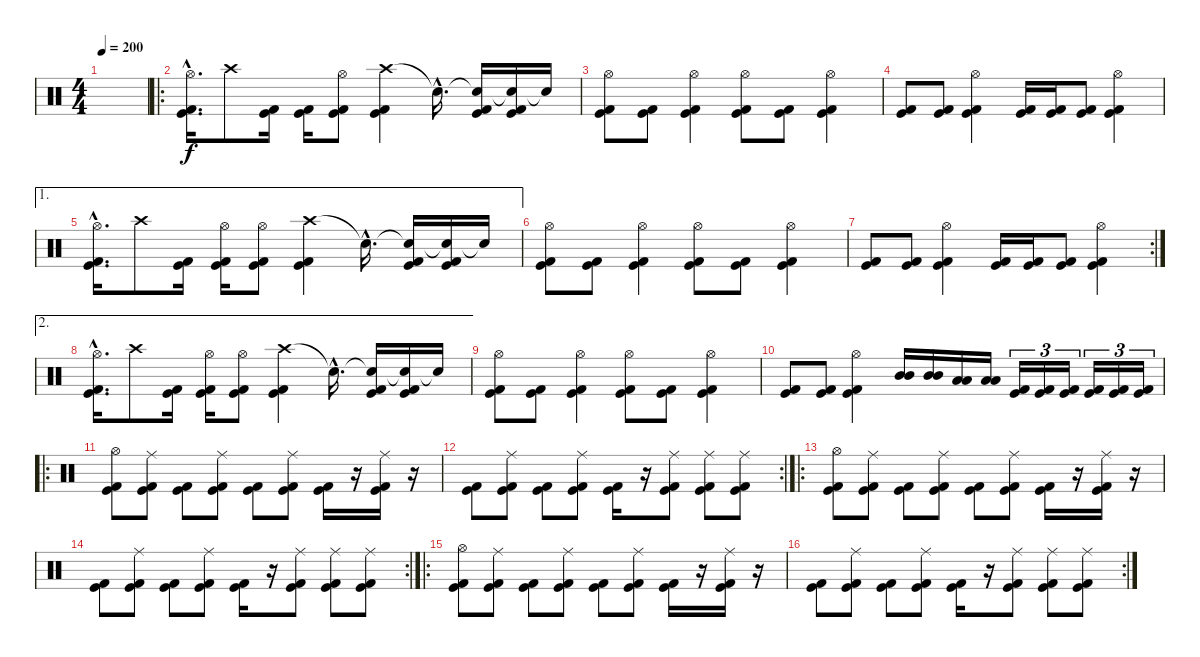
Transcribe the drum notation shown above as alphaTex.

\track "" {instrument percussion}
\staff {score}
\articulation defaults
\ts (4 4)
\tempo 200
\clef neutral
\ks c
|
\ro
("Hi-Hat (open)"{hac} "Kick (hit)"{hac} "Kick (hit) 2"{hac}).16{d} "Crash high (hit)".8 ("Kick (hit)" "Kick (hit) 2").16 ("Kick (hit)" "Kick (hit) 2").16 ("Hi-Hat (open)" "Kick (hit)" "Kick (hit) 2").8 ("Crash high (hit)" "Kick (hit)" "Kick (hit) 2").4 "Snare (hit)"{hac t}.16{d} ("Snare (hit)"{t} "Kick (hit)" "Kick (hit) 2").16 ("Snare (hit)"{t} "Kick (hit)" "Kick (hit) 2").16 "Snare (hit)"{t}.16 |
("Hi-Hat (open)" "Kick (hit)" "Kick (hit) 2").8 ("Kick (hit)" "Kick (hit) 2").8 ("Hi-Hat (open)" "Kick (hit)" "Kick (hit) 2").4 ("Hi-Hat (open)" "Kick (hit)" "Kick (hit) 2").8 ("Kick (hit)" "Kick (hit) 2").8 ("Hi-Hat (open)" "Kick (hit)" "Kick (hit) 2").4 |
("Kick (hit)" "Kick (hit) 2").8 ("Kick (hit)" "Kick (hit) 2").8 ("Hi-Hat (open)" "Kick (hit)" "Kick (hit) 2").4 ("Kick (hit)" "Kick (hit) 2").16 ("Kick (hit)" "Kick (hit) 2").16 ("Kick (hit)" "Kick (hit) 2").8 ("Hi-Hat (open)" "Kick (hit)" "Kick (hit) 2").4 |
\ae 1
("Hi-Hat (open)"{hac} "Kick (hit)"{hac} "Kick (hit) 2"{hac}).16{d} "Crash high (hit)".8 ("Kick (hit)" "Kick (hit) 2").16 ("Hi-Hat (open)" "Kick (hit)" "Kick (hit) 2").16 ("Hi-Hat (open)" "Kick (hit)" "Kick (hit) 2").8 ("Crash high (hit)" "Kick (hit)" "Kick (hit) 2").4 "Snare (hit)"{hac t}.16{d} ("Snare (hit)"{t} "Kick (hit)" "Kick (hit) 2").16 ("Snare (hit)"{t} "Kick (hit)" "Kick (hit) 2").16 "Snare (hit)"{t}.16 |
("Hi-Hat (open)" "Kick (hit)" "Kick (hit) 2").8 ("Kick (hit)" "Kick (hit) 2").8 ("Hi-Hat (open)" "Kick (hit)" "Kick (hit) 2").4 ("Hi-Hat (open)" "Kick (hit)" "Kick (hit) 2").8 ("Kick (hit)" "Kick (hit) 2").8 ("Hi-Hat (open)" "Kick (hit)" "Kick (hit) 2").4 |
\rc 2
("Kick (hit)" "Kick (hit) 2").8 ("Kick (hit)" "Kick (hit) 2").8 ("Hi-Hat (open)" "Kick (hit)" "Kick (hit) 2").4 ("Kick (hit)" "Kick (hit) 2").16 ("Kick (hit)" "Kick (hit) 2").16 ("Kick (hit)" "Kick (hit) 2").8 ("Hi-Hat (open)" "Kick (hit)" "Kick (hit) 2").4 |
\ae 2
("Hi-Hat (open)"{hac} "Kick (hit)"{hac} "Kick (hit) 2"{hac}).16{d} "Crash high (hit)".8 ("Kick (hit)" "Kick (hit) 2").16 ("Hi-Hat (open)" "Kick (hit)" "Kick (hit) 2").16 ("Hi-Hat (open)" "Kick (hit)" "Kick (hit) 2").8 ("Crash high (hit)" "Kick (hit)" "Kick (hit) 2").4 "Snare (hit)"{hac t}.16{d} ("Snare (hit)"{t} "Kick (hit)" "Kick (hit) 2").16 ("Snare (hit)"{t} "Kick (hit)" "Kick (hit) 2").16 "Snare (hit)"{t}.16 |
("Hi-Hat (open)" "Kick (hit)" "Kick (hit) 2").8 ("Kick (hit)" "Kick (hit) 2").8 ("Hi-Hat (open)" "Kick (hit)" "Kick (hit) 2").4 ("Hi-Hat (open)" "Kick (hit)" "Kick (hit) 2").8 ("Kick (hit)" "Kick (hit) 2").8 ("Hi-Hat (open)" "Kick (hit)" "Kick (hit) 2").4 |
("Kick (hit)" "Kick (hit) 2").8 ("Kick (hit)" "Kick (hit) 2").8 ("Hi-Hat (open)" "Kick (hit)" "Kick (hit) 2").4 ("Mid Tom (hit)" "Mid Tom (hit)").16 ("Mid Tom (hit)" "Mid Tom (hit)").16 ("Low Tom (hit)" "Low Tom (hit)").16 ("Low Tom (hit)" "Low Tom (hit)").16 ("Kick (hit)" "Kick (hit) 2").16{tu (3 2)} ("Kick (hit)" "Kick (hit) 2").16{tu (3 2)} ("Kick (hit)" "Kick (hit) 2").16{tu (3 2)} ("Kick (hit)" "Kick (hit) 2").16{tu (3 2)} ("Kick (hit)" "Kick (hit) 2").16{tu (3 2)} ("Kick (hit)" "Kick (hit) 2").16{tu (3 2)} |
\ro
("Hi-Hat (open)" "Kick (hit)" "Kick (hit) 2").8 ("Ride (middle)" "Kick (hit)" "Kick (hit) 2").8 ("Kick (hit)" "Kick (hit) 2").8 ("Ride (middle)" "Kick (hit)" "Kick (hit) 2").8 ("Kick (hit)" "Kick (hit) 2").8 ("Ride (middle)" "Kick (hit)" "Kick (hit) 2").8 ("Kick (hit)" "Kick (hit) 2").16 r.16 ("Ride (middle)" "Kick (hit)" "Kick (hit) 2").16 r.16 |
\rc 2
("Kick (hit)" "Kick (hit) 2").8 ("Ride (middle)" "Kick (hit)" "Kick (hit) 2").8 ("Kick (hit)" "Kick (hit) 2").8 ("Ride (middle)" "Kick (hit)" "Kick (hit) 2").8 ("Kick (hit)" "Kick (hit) 2").16 r.16 ("Ride (middle)" "Kick (hit)" "Kick (hit) 2").8 ("Ride (middle)" "Kick (hit)" "Kick (hit) 2").8 ("Ride (middle)" "Kick (hit)" "Kick (hit) 2").8 |
\ro
("Hi-Hat (open)" "Kick (hit)" "Kick (hit) 2").8 ("Ride (middle)" "Kick (hit)" "Kick (hit) 2").8 ("Kick (hit)" "Kick (hit) 2").8 ("Ride (middle)" "Kick (hit)" "Kick (hit) 2").8 ("Kick (hit)" "Kick (hit) 2").8 ("Ride (middle)" "Kick (hit)" "Kick (hit) 2").8 ("Kick (hit)" "Kick (hit) 2").16 r.16 ("Ride (middle)" "Kick (hit)" "Kick (hit) 2").16 r.16 |
\rc 2
("Kick (hit)" "Kick (hit) 2").8 ("Ride (middle)" "Kick (hit)" "Kick (hit) 2").8 ("Kick (hit)" "Kick (hit) 2").8 ("Ride (middle)" "Kick (hit)" "Kick (hit) 2").8 ("Kick (hit)" "Kick (hit) 2").16 r.16 ("Ride (middle)" "Kick (hit)" "Kick (hit) 2").8 ("Ride (middle)" "Kick (hit)" "Kick (hit) 2").8 ("Ride (middle)" "Kick (hit)" "Kick (hit) 2").8 |
\ro
("Hi-Hat (open)" "Kick (hit)" "Kick (hit) 2").8 ("Ride (middle)" "Kick (hit)" "Kick (hit) 2").8 ("Kick (hit)" "Kick (hit) 2").8 ("Ride (middle)" "Kick (hit)" "Kick (hit) 2").8 ("Kick (hit)" "Kick (hit) 2").8 ("Ride (middle)" "Kick (hit)" "Kick (hit) 2").8 ("Kick (hit)" "Kick (hit) 2").16 r.16 ("Ride (middle)" "Kick (hit)" "Kick (hit) 2").16 r.16 |
\rc 2
("Kick (hit)" "Kick (hit) 2").8 ("Ride (middle)" "Kick (hit)" "Kick (hit) 2").8 ("Kick (hit)" "Kick (hit) 2").8 ("Ride (middle)" "Kick (hit)" "Kick (hit) 2").8 ("Kick (hit)" "Kick (hit) 2").16 r.16 ("Ride (middle)" "Kick (hit)" "Kick (hit) 2").8 ("Ride (middle)" "Kick (hit)" "Kick (hit) 2").8 ("Ride (middle)" "Kick (hit)" "Kick (hit) 2").8
